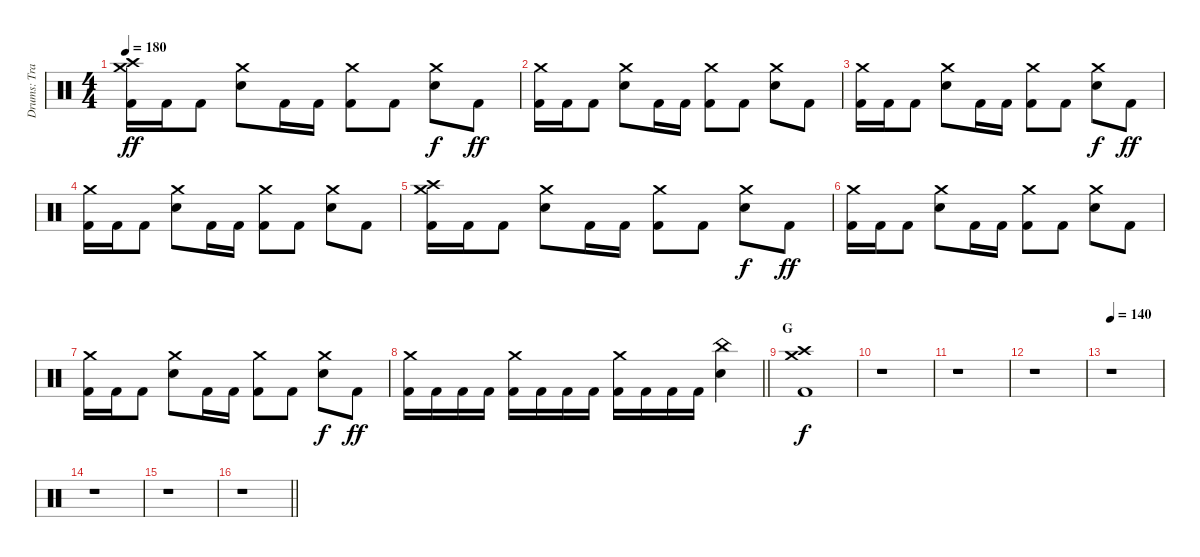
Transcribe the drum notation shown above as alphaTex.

\track ("Drums: Travis Clarke" "Drums: Tra") {instrument percussion}
\staff {score}
\articulation defaults
\ts (4 4)
\tempo 180
\clef neutral
\ks c
("Kick (hit) 2" "Crash high (hit)" "Crash medium (hit)").16{dy ff} "Kick (hit) 2".16 "Kick (hit) 2".8 ("Snare (hit) 2" "Crash medium (hit)").8 "Kick (hit) 2".16 "Kick (hit) 2".16 ("Kick (hit) 2" "Crash medium (hit)").8 "Kick (hit) 2".8 ("Snare (hit) 2" "Crash medium (hit)").8{dy f} "Kick (hit) 2".8{dy ff} |
("Kick (hit) 2" "Crash medium (hit)").16 "Kick (hit) 2".16 "Kick (hit) 2".8 ("Snare (hit) 2" "Crash medium (hit)").8 "Kick (hit) 2".16 "Kick (hit) 2".16 ("Kick (hit) 2" "Crash medium (hit)").8 "Kick (hit) 2".8 ("Snare (hit) 2" "Crash medium (hit)").8 "Kick (hit) 2".8 |
("Kick (hit) 2" "Crash medium (hit)").16 "Kick (hit) 2".16 "Kick (hit) 2".8 ("Snare (hit) 2" "Crash medium (hit)").8 "Kick (hit) 2".16 "Kick (hit) 2".16 ("Kick (hit) 2" "Crash medium (hit)").8 "Kick (hit) 2".8 ("Snare (hit) 2" "Crash medium (hit)").8{dy f} "Kick (hit) 2".8{dy ff} |
("Kick (hit) 2" "Crash medium (hit)").16 "Kick (hit) 2".16 "Kick (hit) 2".8 ("Snare (hit) 2" "Crash medium (hit)").8 "Kick (hit) 2".16 "Kick (hit) 2".16 ("Kick (hit) 2" "Crash medium (hit)").8 "Kick (hit) 2".8 ("Snare (hit) 2" "Crash medium (hit)").8 "Kick (hit) 2".8 |
("Kick (hit) 2" "Crash high (hit)" "Crash medium (hit)").16 "Kick (hit) 2".16 "Kick (hit) 2".8 ("Snare (hit) 2" "Crash medium (hit)").8 "Kick (hit) 2".16 "Kick (hit) 2".16 ("Kick (hit) 2" "Crash medium (hit)").8 "Kick (hit) 2".8 ("Snare (hit) 2" "Crash medium (hit)").8{dy f} "Kick (hit) 2".8{dy ff} |
("Kick (hit) 2" "Crash medium (hit)").16 "Kick (hit) 2".16 "Kick (hit) 2".8 ("Snare (hit) 2" "Crash medium (hit)").8 "Kick (hit) 2".16 "Kick (hit) 2".16 ("Kick (hit) 2" "Crash medium (hit)").8 "Kick (hit) 2".8 ("Snare (hit) 2" "Crash medium (hit)").8 "Kick (hit) 2".8 |
("Kick (hit) 2" "Crash medium (hit)").16 "Kick (hit) 2".16 "Kick (hit) 2".8 ("Snare (hit) 2" "Crash medium (hit)").8 "Kick (hit) 2".16 "Kick (hit) 2".16 ("Kick (hit) 2" "Crash medium (hit)").8 "Kick (hit) 2".8 ("Snare (hit) 2" "Crash medium (hit)").8{dy f} "Kick (hit) 2".8{dy ff} |
\barLineRight lightlight
("Kick (hit) 2" "Crash medium (hit)").16 "Kick (hit) 2".16 "Kick (hit) 2".16 "Kick (hit) 2".16 ("Kick (hit) 2" "Crash medium (hit)").16 "Kick (hit) 2".16 "Kick (hit) 2".16 "Kick (hit) 2".16 ("Kick (hit) 2" "Crash medium (hit)").16 "Kick (hit) 2".16 "Kick (hit) 2".16 "Kick (hit) 2".16 ("Snare (hit) 2" "China (hit)").4 |
\section ("" "G")
("Kick (hit) 2" "Crash high (hit)" "Crash medium (hit)").1{dy f} |
r.1 |
r.1 |
r.1 |
\tempo 140
r.1 |
r.1 |
r.1 |
\barLineRight lightlight
r.1
